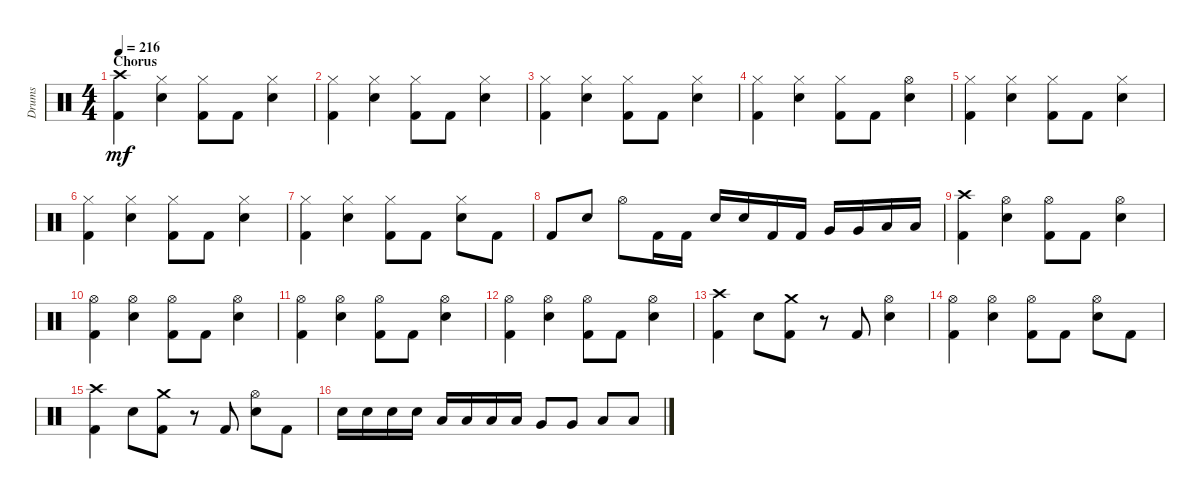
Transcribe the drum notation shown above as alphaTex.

\track ("Drums" "Drums") {instrument percussion}
\staff {score}
\articulation defaults
\ts (4 4)
\section ("" "Chorus")
\tempo 216
\clef neutral
\ks aminor
("Crash high (hit)" "Kick (hit) 2").4{dy mf} ("Snare (hit) 2" "Hi-Hat (closed)").4 ("Hi-Hat (closed)" "Kick (hit) 2").8 "Kick (hit) 2".8 ("Snare (hit) 2" "Hi-Hat (closed)").4 |
("Hi-Hat (closed)" "Kick (hit) 2").4 ("Hi-Hat (closed)" "Snare (hit) 2").4 ("Hi-Hat (closed)" "Kick (hit) 2").8 "Kick (hit) 2".8 ("Snare (hit) 2" "Hi-Hat (closed)").4 |
("Kick (hit) 2" "Hi-Hat (closed)").4 ("Snare (hit) 2" "Hi-Hat (closed)").4 ("Hi-Hat (closed)" "Kick (hit) 2").8 "Kick (hit) 2".8 ("Snare (hit) 2" "Hi-Hat (closed)").4 |
("Kick (hit) 2" "Hi-Hat (closed)").4 ("Hi-Hat (closed)" "Snare (hit) 2").4 ("Kick (hit) 2" "Hi-Hat (closed)").8 "Kick (hit) 2".8 ("Snare (hit) 2" "Hi-Hat (open)").4 |
("Kick (hit) 2" "Hi-Hat (closed)").4 ("Snare (hit) 2" "Hi-Hat (closed)").4 ("Kick (hit) 2" "Hi-Hat (closed)").8 "Kick (hit) 2".8 ("Snare (hit) 2" "Hi-Hat (closed)").4 |
("Kick (hit) 2" "Hi-Hat (closed)").4 ("Snare (hit) 2" "Hi-Hat (closed)").4 ("Kick (hit) 2" "Hi-Hat (closed)").8 "Kick (hit) 2".8 ("Hi-Hat (closed)" "Snare (hit) 2").4 |
("Hi-Hat (closed)" "Kick (hit) 2").4 ("Snare (hit) 2" "Hi-Hat (closed)").4 ("Hi-Hat (closed)" "Kick (hit) 2").8 "Kick (hit) 2".8 ("Hi-Hat (closed)" "Snare (hit) 2").8 "Kick (hit) 2".8 |
"Kick (hit) 2".8 "Snare (hit) 2".8 "Hi-Hat (open)".8 "Kick (hit) 2".16 "Kick (hit) 2".16 "Snare (hit) 2".16 "Snare (hit) 2".16 "Kick (hit) 2".16 "Kick (hit) 2".16 "Very Low Tom (hit)".16 "Very Low Tom (hit)".16 "Low Floor Tom (hit)".16 "Low Floor Tom (hit)".16 |
("Crash high (hit)" "Kick (hit) 2").4 ("Hi-Hat (open)" "Snare (hit) 2").4 ("Kick (hit) 2" "Hi-Hat (open)").8 "Kick (hit) 2".8 ("Snare (hit) 2" "Hi-Hat (open)").4 |
("Kick (hit) 2" "Hi-Hat (open)").4 ("Hi-Hat (open)" "Snare (hit) 2").4 ("Hi-Hat (open)" "Kick (hit) 2").8 "Kick (hit) 2".8 ("Snare (hit) 2" "Hi-Hat (open)").4 |
("Hi-Hat (open)" "Kick (hit) 2").4 ("Snare (hit) 2" "Hi-Hat (open)").4 ("Hi-Hat (open)" "Kick (hit) 2").8 "Kick (hit) 2".8 ("Snare (hit) 2" "Hi-Hat (open)").4 |
("Kick (hit) 2" "Hi-Hat (open)").4 ("Hi-Hat (open)" "Snare (hit) 2").4 ("Kick (hit) 2" "Hi-Hat (open)").8 "Kick (hit) 2".8 ("Hi-Hat (open)" "Snare (hit) 2").4 |
("Crash high (hit)" "Kick (hit) 2").4 "Snare (hit) 2".8 ("Kick (hit) 2" "Crash medium (hit)").8 r.8 "Kick (hit) 2".8 ("Snare (hit) 2" "Hi-Hat (open)").4 |
("Kick (hit) 2" "Hi-Hat (open)").4 ("Snare (hit) 2" "Hi-Hat (open)").4 ("Kick (hit) 2" "Hi-Hat (open)").8 "Kick (hit) 2".8 ("Snare (hit) 2" "Hi-Hat (open)").8 "Kick (hit) 2".8 |
("Kick (hit) 2" "Crash high (hit)").4 "Snare (hit) 2".8 ("Crash medium (hit)" "Kick (hit) 2").8 r.8 "Kick (hit) 2".8 ("Hi-Hat (open)" "Snare (hit) 2").8 "Kick (hit) 2".8 |
"Snare (hit) 2".16 "Snare (hit) 2".16 "Snare (hit) 2".16 "Snare (hit) 2".16 "Low Tom (hit)".16 "Low Tom (hit)".16 "Low Tom (hit)".16 "Low Tom (hit)".16 "Very Low Tom (hit)".8 "Very Low Tom (hit)".8 "Low Floor Tom (hit)".8 "Low Floor Tom (hit)".8
